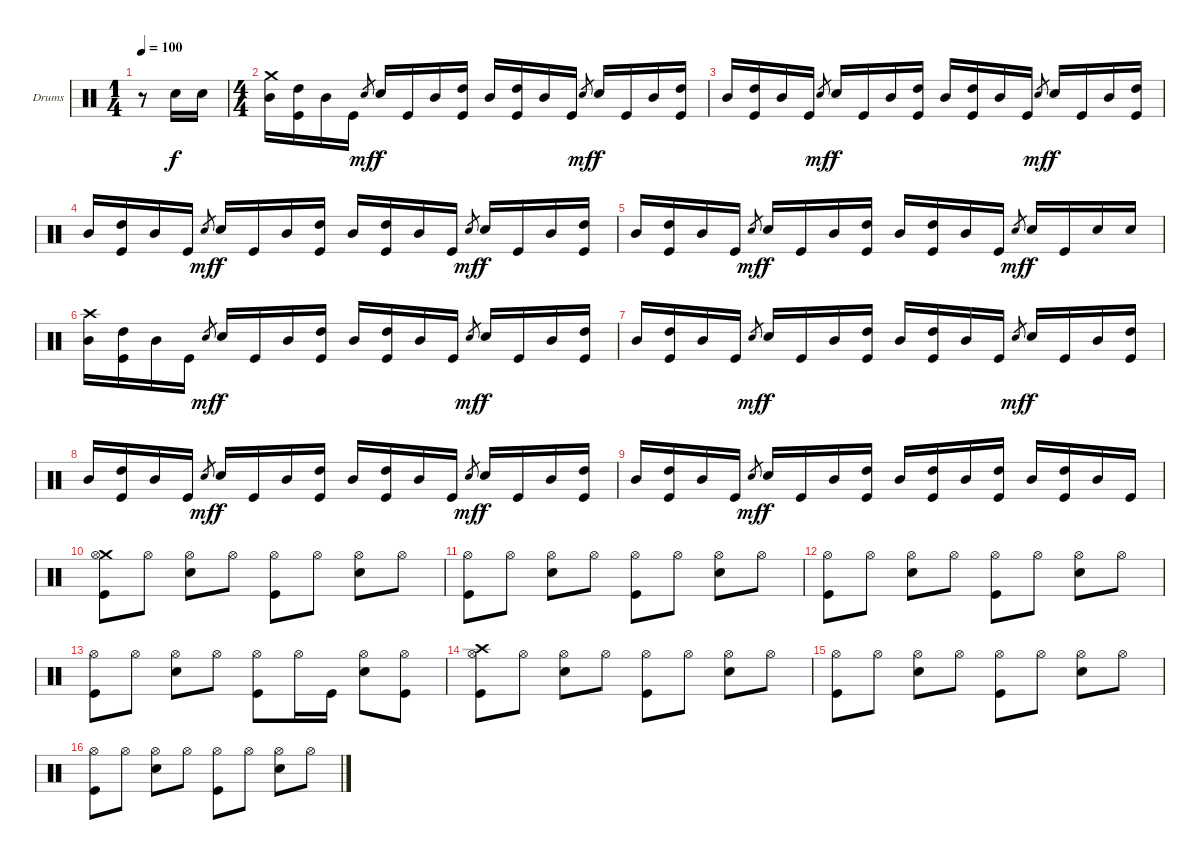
\defaultSystemsLayout 4
\bracketExtendMode groupsimilarinstruments
\firstSystemTrackNameOrientation horizontal
\otherSystemsTrackNameOrientation horizontal
\track ("Nick Menza " "Drums") {instrument percussion}
\staff {score}
\articulation defaults
\ts (1 4)
\tempo 100
\clef neutral
\ks c
r.8{dy f} "Snare (hit) 2".16 "Snare (hit) 2".16 |
\ts (4 4)
("Crash medium (hit)" "Mid Tom (hit)").16 ("Kick (hit)" "High Tom (hit)").16 "Mid Tom (hit)".16 "Kick (hit)".16 "Snare (hit) 2".8{gr dy mf} "Snare (hit) 2".16{dy f} "Kick (hit)".16 "Mid Tom (hit)".16 ("Kick (hit)" "High Tom (hit)").16 "Mid Tom (hit)".16 ("Kick (hit)" "High Tom (hit)").16 "Mid Tom (hit)".16 "Kick (hit)".16 "Snare (hit) 2".8{gr dy mf} "Snare (hit) 2".16{dy f} "Kick (hit)".16 "Mid Tom (hit)".16 ("Kick (hit)" "High Tom (hit)").16 |
"Mid Tom (hit)".16 ("Kick (hit)" "High Tom (hit)").16 "Mid Tom (hit)".16 "Kick (hit)".16 "Snare (hit) 2".8{gr dy mf} "Snare (hit) 2".16{dy f} "Kick (hit)".16 "Mid Tom (hit)".16 ("Kick (hit)" "High Tom (hit)").16 "Mid Tom (hit)".16 ("Kick (hit)" "High Tom (hit)").16 "Mid Tom (hit)".16 "Kick (hit)".16 "Snare (hit) 2".8{gr dy mf} "Snare (hit) 2".16{dy f} "Kick (hit)".16 "Mid Tom (hit)".16 ("Kick (hit)" "High Tom (hit)").16 |
"Mid Tom (hit)".16 ("Kick (hit)" "High Tom (hit)").16 "Mid Tom (hit)".16 "Kick (hit)".16 "Snare (hit) 2".8{gr dy mf} "Snare (hit) 2".16{dy f} "Kick (hit)".16 "Mid Tom (hit)".16 ("Kick (hit)" "High Tom (hit)").16 "Mid Tom (hit)".16 ("Kick (hit)" "High Tom (hit)").16 "Mid Tom (hit)".16 "Kick (hit)".16 "Snare (hit) 2".8{gr dy mf} "Snare (hit) 2".16{dy f} "Kick (hit)".16 "Mid Tom (hit)".16 ("Kick (hit)" "High Tom (hit)").16 |
"Mid Tom (hit)".16 ("Kick (hit)" "High Tom (hit)").16 "Mid Tom (hit)".16 "Kick (hit)".16 "Snare (hit) 2".8{gr dy mf} "Snare (hit) 2".16{dy f} "Kick (hit)".16 "Mid Tom (hit)".16 ("Kick (hit)" "High Tom (hit)").16 "Mid Tom (hit)".16 ("Kick (hit)" "High Tom (hit)").16 "Mid Tom (hit)".16 "Kick (hit)".16 "Snare (hit) 2".8{gr dy mf} "Snare (hit) 2".16{dy f} "Kick (hit)".16 "Snare (hit) 2".16 "Snare (hit) 2".16 |
("Crash high (hit)" "Mid Tom (hit)").16 ("Kick (hit)" "High Tom (hit)").16 "Mid Tom (hit)".16 "Kick (hit)".16 "Snare (hit) 2".8{gr dy mf} "Snare (hit) 2".16{dy f} "Kick (hit)".16 "Mid Tom (hit)".16 ("Kick (hit)" "High Tom (hit)").16 "Mid Tom (hit)".16 ("Kick (hit)" "High Tom (hit)").16 "Mid Tom (hit)".16 "Kick (hit)".16 "Snare (hit) 2".8{gr dy mf} "Snare (hit) 2".16{dy f} "Kick (hit)".16 "Mid Tom (hit)".16 ("Kick (hit)" "High Tom (hit)").16 |
"Mid Tom (hit)".16 ("Kick (hit)" "High Tom (hit)").16 "Mid Tom (hit)".16 "Kick (hit)".16 "Snare (hit) 2".8{gr dy mf} "Snare (hit) 2".16{dy f} "Kick (hit)".16 "Mid Tom (hit)".16 ("Kick (hit)" "High Tom (hit)").16 "Mid Tom (hit)".16 ("Kick (hit)" "High Tom (hit)").16 "Mid Tom (hit)".16 "Kick (hit)".16 "Snare (hit) 2".8{gr dy mf} "Snare (hit) 2".16{dy f} "Kick (hit)".16 "Mid Tom (hit)".16 ("Kick (hit)" "High Tom (hit)").16 |
"Mid Tom (hit)".16 ("Kick (hit)" "High Tom (hit)").16 "Mid Tom (hit)".16 "Kick (hit)".16 "Snare (hit) 2".8{gr dy mf} "Snare (hit) 2".16{dy f} "Kick (hit)".16 "Mid Tom (hit)".16 ("Kick (hit)" "High Tom (hit)").16 "Mid Tom (hit)".16 ("Kick (hit)" "High Tom (hit)").16 "Mid Tom (hit)".16 "Kick (hit)".16 "Snare (hit) 2".8{gr dy mf} "Snare (hit) 2".16{dy f} "Kick (hit)".16 "Mid Tom (hit)".16 ("Kick (hit)" "High Tom (hit)").16 |
"Mid Tom (hit)".16 ("Kick (hit)" "High Tom (hit)").16 "Mid Tom (hit)".16 "Kick (hit)".16 "Snare (hit) 2".8{gr dy mf} "Snare (hit) 2".16{dy f} "Kick (hit)".16 "Mid Tom (hit)".16 ("Kick (hit)" "High Tom (hit)").16 "Mid Tom (hit)".16 ("Kick (hit)" "High Tom (hit)").16 "Mid Tom (hit)".16 ("Kick (hit)" "High Tom (hit)").16 "Mid Tom (hit)".16 ("Kick (hit)" "High Tom (hit)").16 "Mid Tom (hit)".16 "Kick (hit)".16 |
("Crash medium (hit)" "Hi-Hat (open)" "Kick (hit)").8 "Hi-Hat (open)".8 ("Hi-Hat (open)" "Snare (hit) 2").8 "Hi-Hat (open)".8 ("Hi-Hat (open)" "Kick (hit)").8 "Hi-Hat (open)".8 ("Hi-Hat (open)" "Snare (hit) 2").8 "Hi-Hat (open)".8 |
("Hi-Hat (open)" "Kick (hit)").8 "Hi-Hat (open)".8 ("Hi-Hat (open)" "Snare (hit) 2").8 "Hi-Hat (open)".8 ("Hi-Hat (open)" "Kick (hit)").8 "Hi-Hat (open)".8 ("Hi-Hat (open)" "Snare (hit) 2").8 "Hi-Hat (open)".8 |
("Hi-Hat (open)" "Kick (hit)").8 "Hi-Hat (open)".8 ("Hi-Hat (open)" "Snare (hit) 2").8 "Hi-Hat (open)".8 ("Hi-Hat (open)" "Kick (hit)").8 "Hi-Hat (open)".8 ("Hi-Hat (open)" "Snare (hit) 2").8 "Hi-Hat (open)".8 |
("Hi-Hat (open)" "Kick (hit)").8 "Hi-Hat (open)".8 ("Hi-Hat (open)" "Snare (hit) 2").8 "Hi-Hat (open)".8 ("Hi-Hat (open)" "Kick (hit)").8 "Hi-Hat (open)".16 "Kick (hit)".16 ("Hi-Hat (open)" "Snare (hit) 2").8 ("Hi-Hat (open)" "Kick (hit)").8 |
("Crash high (hit)" "Hi-Hat (open)" "Kick (hit)").8 "Hi-Hat (open)".8 ("Hi-Hat (open)" "Snare (hit) 2").8 "Hi-Hat (open)".8 ("Hi-Hat (open)" "Kick (hit)").8 "Hi-Hat (open)".8 ("Hi-Hat (open)" "Snare (hit) 2").8 "Hi-Hat (open)".8 |
("Hi-Hat (open)" "Kick (hit)").8 "Hi-Hat (open)".8 ("Hi-Hat (open)" "Snare (hit) 2").8 "Hi-Hat (open)".8 ("Hi-Hat (open)" "Kick (hit)").8 "Hi-Hat (open)".8 ("Hi-Hat (open)" "Snare (hit) 2").8 "Hi-Hat (open)".8 |
("Hi-Hat (open)" "Kick (hit)").8 "Hi-Hat (open)".8 ("Hi-Hat (open)" "Snare (hit) 2").8 "Hi-Hat (open)".8 ("Hi-Hat (open)" "Kick (hit)").8 "Hi-Hat (open)".8 ("Hi-Hat (open)" "Snare (hit) 2").8 "Hi-Hat (open)".8
